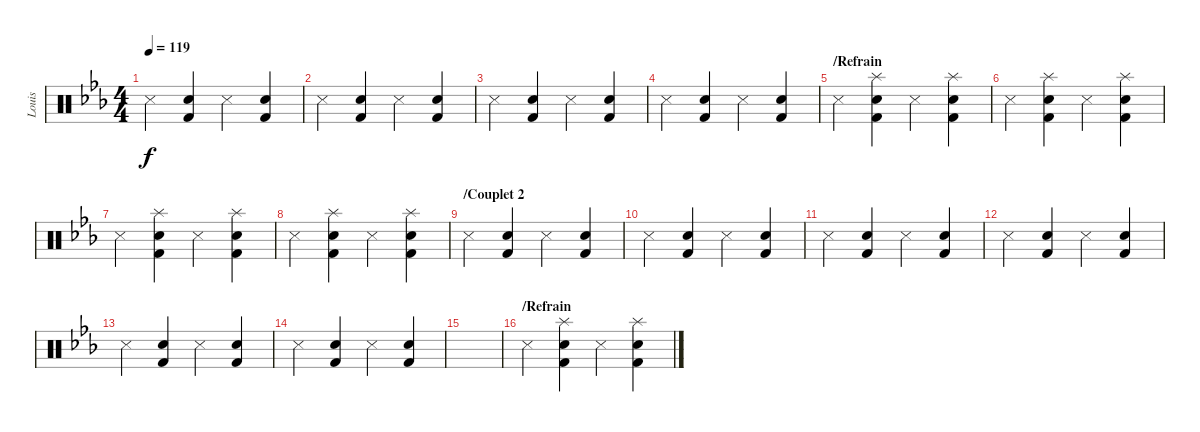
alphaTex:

\track ("Louis" "Louis") {instrument percussion}
\staff {score}
\articulation defaults
\ts (4 4)
\tempo 119
\clef neutral
\ks cminor "Metronome (hit)".4{dy f}
("Kick (hit) 2" "Snare (hit) 2").4 "Metronome (hit)".4 ("Kick (hit) 2" "Snare (hit) 2").4 |
"Metronome (hit)".4 ("Kick (hit) 2" "Snare (hit) 2").4 "Metronome (hit)".4 ("Kick (hit) 2" "Snare (hit) 2").4 |
"Metronome (hit)".4 ("Kick (hit) 2" "Snare (hit) 2").4 "Metronome (hit)".4 ("Kick (hit) 2" "Snare (hit) 2").4 |
"Metronome (hit)".4 ("Kick (hit) 2" "Snare (hit) 2").4 "Metronome (hit)".4 ("Kick (hit) 2" "Snare (hit) 2").4 |
\section ("" "/Refrain")
"Metronome (hit)".4 ("Splash (hit)" "Kick (hit) 2" "Snare (hit) 2").4 "Metronome (hit)".4 ("Splash (hit)" "Kick (hit) 2" "Snare (hit) 2").4 |
"Metronome (hit)".4 ("Splash (hit)" "Kick (hit) 2" "Snare (hit) 2").4 "Metronome (hit)".4 ("Splash (hit)" "Kick (hit) 2" "Snare (hit) 2").4 |
"Metronome (hit)".4 ("Splash (hit)" "Kick (hit) 2" "Snare (hit) 2").4 "Metronome (hit)".4 ("Splash (hit)" "Kick (hit) 2" "Snare (hit) 2").4 |
"Metronome (hit)".4 ("Splash (hit)" "Kick (hit) 2" "Snare (hit) 2").4 "Metronome (hit)".4 ("Splash (hit)" "Kick (hit) 2" "Snare (hit) 2").4 |
\section ("" "/Couplet 2")
"Metronome (hit)".4 ("Kick (hit) 2" "Snare (hit) 2").4 "Metronome (hit)".4 ("Kick (hit) 2" "Snare (hit) 2").4 |
"Metronome (hit)".4 ("Kick (hit) 2" "Snare (hit) 2").4 "Metronome (hit)".4 ("Kick (hit) 2" "Snare (hit) 2").4 |
"Metronome (hit)".4 ("Kick (hit) 2" "Snare (hit) 2").4 "Metronome (hit)".4 ("Kick (hit) 2" "Snare (hit) 2").4 |
"Metronome (hit)".4 ("Kick (hit) 2" "Snare (hit) 2").4 "Metronome (hit)".4 ("Kick (hit) 2" "Snare (hit) 2").4 |
"Metronome (hit)".4 ("Kick (hit) 2" "Snare (hit) 2").4 "Metronome (hit)".4 ("Kick (hit) 2" "Snare (hit) 2").4 |
"Metronome (hit)".4 ("Kick (hit) 2" "Snare (hit) 2").4 "Metronome (hit)".4 ("Kick (hit) 2" "Snare (hit) 2").4 |
|
\section ("" "/Refrain")
"Metronome (hit)".4 ("Splash (hit)" "Kick (hit) 2" "Snare (hit) 2").4 "Metronome (hit)".4 ("Splash (hit)" "Kick (hit) 2" "Snare (hit) 2").4
